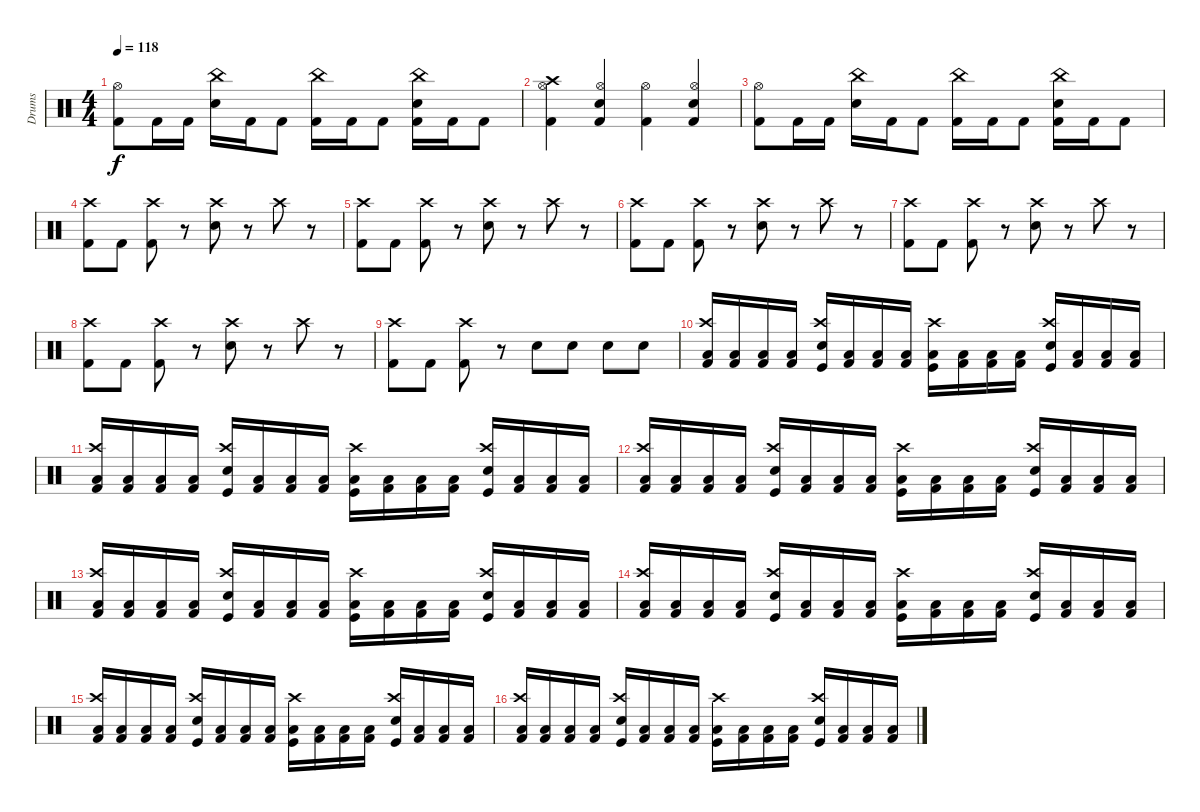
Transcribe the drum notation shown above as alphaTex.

\track ("Drums" "Drums") {instrument percussion}
\staff {score}
\articulation defaults
\ts (4 4)
\tempo 118
\clef neutral
\ks c
("Kick (hit) 2" "Hi-Hat (open)").8{dy f} "Kick (hit) 2".16 "Kick (hit) 2".16 ("Snare (hit) 2" "China (hit)").16 "Kick (hit) 2".16 "Kick (hit) 2".8 ("Kick (hit) 2" "China (hit)").16 "Kick (hit) 2".16 "Kick (hit) 2".8 ("Kick (hit) 2" "Snare (hit) 2" "China (hit)").16 "Kick (hit) 2".16 "Kick (hit) 2".8 |
("Kick (hit) 2" "Hi-Hat (open)" "Crash high (hit)").4 ("Kick (hit) 2" "Snare (hit) 2" "Hi-Hat (open)").4 ("Kick (hit) 2" "Hi-Hat (open)").4 ("Kick (hit) 2" "Snare (hit) 2" "Hi-Hat (open)").4 |
("Kick (hit) 2" "Hi-Hat (open)").8 "Kick (hit) 2".16 "Kick (hit) 2".16 ("Snare (hit) 2" "China (hit)").16 "Kick (hit) 2".16 "Kick (hit) 2".8 ("Kick (hit) 2" "China (hit)").16 "Kick (hit) 2".16 "Kick (hit) 2".8 ("Kick (hit) 2" "Snare (hit) 2" "China (hit)").16 "Kick (hit) 2".16 "Kick (hit) 2".8 |
("Kick (hit) 2" "Crash high (hit)").8 "Kick (hit) 2".8 ("Kick (hit) 2" "Crash high (hit)").8 r.8 ("Snare (hit) 2" "Crash high (hit)").8 r.8 "Crash high (hit)".8 r.8 |
("Kick (hit) 2" "Crash high (hit)").8 "Kick (hit) 2".8 ("Kick (hit) 2" "Crash high (hit)").8 r.8 ("Snare (hit) 2" "Crash high (hit)").8 r.8 "Crash high (hit)".8 r.8 |
("Kick (hit) 2" "Crash high (hit)").8 "Kick (hit) 2".8 ("Kick (hit) 2" "Crash high (hit)").8 r.8 ("Snare (hit) 2" "Crash high (hit)").8 r.8 "Crash high (hit)".8 r.8 |
("Kick (hit) 2" "Crash high (hit)").8 "Kick (hit) 2".8 ("Kick (hit) 2" "Crash high (hit)").8 r.8 ("Snare (hit) 2" "Crash high (hit)").8 r.8 "Crash high (hit)".8 r.8 |
("Kick (hit) 2" "Crash high (hit)").8 "Kick (hit) 2".8 ("Kick (hit) 2" "Crash high (hit)").8 r.8 ("Snare (hit) 2" "Crash high (hit)").8 r.8 "Crash high (hit)".8 r.8 |
("Kick (hit) 2" "Crash high (hit)").8 "Kick (hit) 2".8 ("Kick (hit) 2" "Crash high (hit)").8 r.8 "Snare (hit) 2".8 "Snare (hit) 2".8 "Snare (hit) 2".8 "Snare (hit) 2".8 |
("Kick (hit) 2" "Low Floor Tom (hit)" "Crash high (hit)").16 ("Kick (hit) 2" "Low Floor Tom (hit)").16 ("Kick (hit) 2" "Low Floor Tom (hit)").16 ("Kick (hit) 2" "Low Floor Tom (hit)").16 ("Kick (hit)" "Snare (hit) 2" "Crash high (hit)").16 ("Kick (hit) 2" "Low Floor Tom (hit)").16 ("Kick (hit) 2" "Low Floor Tom (hit)").16 ("Kick (hit) 2" "Low Floor Tom (hit)").16 ("Kick (hit)" "Low Floor Tom (hit)" "Crash high (hit)").16 ("Kick (hit) 2" "Low Floor Tom (hit)").16 ("Kick (hit) 2" "Low Floor Tom (hit)").16 ("Kick (hit) 2" "Low Floor Tom (hit)").16 ("Kick (hit)" "Snare (hit) 2" "Crash high (hit)").16 ("Kick (hit) 2" "Low Floor Tom (hit)").16 ("Kick (hit) 2" "Low Floor Tom (hit)").16 ("Kick (hit) 2" "Low Floor Tom (hit)").16 |
("Kick (hit) 2" "Low Floor Tom (hit)" "Crash high (hit)").16 ("Kick (hit) 2" "Low Floor Tom (hit)").16 ("Kick (hit) 2" "Low Floor Tom (hit)").16 ("Kick (hit) 2" "Low Floor Tom (hit)").16 ("Kick (hit)" "Snare (hit) 2" "Crash high (hit)").16 ("Kick (hit) 2" "Low Floor Tom (hit)").16 ("Kick (hit) 2" "Low Floor Tom (hit)").16 ("Kick (hit) 2" "Low Floor Tom (hit)").16 ("Kick (hit)" "Low Floor Tom (hit)" "Crash high (hit)").16 ("Kick (hit) 2" "Low Floor Tom (hit)").16 ("Kick (hit) 2" "Low Floor Tom (hit)").16 ("Kick (hit) 2" "Low Floor Tom (hit)").16 ("Kick (hit)" "Snare (hit) 2" "Crash high (hit)").16 ("Kick (hit) 2" "Low Floor Tom (hit)").16 ("Kick (hit) 2" "Low Floor Tom (hit)").16 ("Kick (hit) 2" "Low Floor Tom (hit)").16 |
("Kick (hit) 2" "Low Floor Tom (hit)" "Crash high (hit)").16 ("Kick (hit) 2" "Low Floor Tom (hit)").16 ("Kick (hit) 2" "Low Floor Tom (hit)").16 ("Kick (hit) 2" "Low Floor Tom (hit)").16 ("Kick (hit)" "Snare (hit) 2" "Crash high (hit)").16 ("Kick (hit) 2" "Low Floor Tom (hit)").16 ("Kick (hit) 2" "Low Floor Tom (hit)").16 ("Kick (hit) 2" "Low Floor Tom (hit)").16 ("Kick (hit)" "Low Floor Tom (hit)" "Crash high (hit)").16 ("Kick (hit) 2" "Low Floor Tom (hit)").16 ("Kick (hit) 2" "Low Floor Tom (hit)").16 ("Kick (hit) 2" "Low Floor Tom (hit)").16 ("Kick (hit)" "Snare (hit) 2" "Crash high (hit)").16 ("Kick (hit) 2" "Low Floor Tom (hit)").16 ("Kick (hit) 2" "Low Floor Tom (hit)").16 ("Kick (hit) 2" "Low Floor Tom (hit)").16 |
("Kick (hit) 2" "Low Floor Tom (hit)" "Crash high (hit)").16 ("Kick (hit) 2" "Low Floor Tom (hit)").16 ("Kick (hit) 2" "Low Floor Tom (hit)").16 ("Kick (hit) 2" "Low Floor Tom (hit)").16 ("Kick (hit)" "Snare (hit) 2" "Crash high (hit)").16 ("Kick (hit) 2" "Low Floor Tom (hit)").16 ("Kick (hit) 2" "Low Floor Tom (hit)").16 ("Kick (hit) 2" "Low Floor Tom (hit)").16 ("Kick (hit)" "Low Floor Tom (hit)" "Crash high (hit)").16 ("Kick (hit) 2" "Low Floor Tom (hit)").16 ("Kick (hit) 2" "Low Floor Tom (hit)").16 ("Kick (hit) 2" "Low Floor Tom (hit)").16 ("Kick (hit)" "Snare (hit) 2" "Crash high (hit)").16 ("Kick (hit) 2" "Low Floor Tom (hit)").16 ("Kick (hit) 2" "Low Floor Tom (hit)").16 ("Kick (hit) 2" "Low Floor Tom (hit)").16 |
("Kick (hit) 2" "Low Floor Tom (hit)" "Crash high (hit)").16 ("Kick (hit) 2" "Low Floor Tom (hit)").16 ("Kick (hit) 2" "Low Floor Tom (hit)").16 ("Kick (hit) 2" "Low Floor Tom (hit)").16 ("Kick (hit)" "Snare (hit) 2" "Crash high (hit)").16 ("Kick (hit) 2" "Low Floor Tom (hit)").16 ("Kick (hit) 2" "Low Floor Tom (hit)").16 ("Kick (hit) 2" "Low Floor Tom (hit)").16 ("Kick (hit)" "Low Floor Tom (hit)" "Crash high (hit)").16 ("Kick (hit) 2" "Low Floor Tom (hit)").16 ("Kick (hit) 2" "Low Floor Tom (hit)").16 ("Kick (hit) 2" "Low Floor Tom (hit)").16 ("Kick (hit)" "Snare (hit) 2" "Crash high (hit)").16 ("Kick (hit) 2" "Low Floor Tom (hit)").16 ("Kick (hit) 2" "Low Floor Tom (hit)").16 ("Kick (hit) 2" "Low Floor Tom (hit)").16 |
("Kick (hit) 2" "Low Floor Tom (hit)" "Crash high (hit)").16 ("Kick (hit) 2" "Low Floor Tom (hit)").16 ("Kick (hit) 2" "Low Floor Tom (hit)").16 ("Kick (hit) 2" "Low Floor Tom (hit)").16 ("Kick (hit)" "Snare (hit) 2" "Crash high (hit)").16 ("Kick (hit) 2" "Low Floor Tom (hit)").16 ("Kick (hit) 2" "Low Floor Tom (hit)").16 ("Kick (hit) 2" "Low Floor Tom (hit)").16 ("Kick (hit)" "Low Floor Tom (hit)" "Crash high (hit)").16 ("Kick (hit) 2" "Low Floor Tom (hit)").16 ("Kick (hit) 2" "Low Floor Tom (hit)").16 ("Kick (hit) 2" "Low Floor Tom (hit)").16 ("Kick (hit)" "Snare (hit) 2" "Crash high (hit)").16 ("Kick (hit) 2" "Low Floor Tom (hit)").16 ("Kick (hit) 2" "Low Floor Tom (hit)").16 ("Kick (hit) 2" "Low Floor Tom (hit)").16 |
("Kick (hit) 2" "Low Floor Tom (hit)" "Crash high (hit)").16 ("Kick (hit) 2" "Low Floor Tom (hit)").16 ("Kick (hit) 2" "Low Floor Tom (hit)").16 ("Kick (hit) 2" "Low Floor Tom (hit)").16 ("Kick (hit)" "Snare (hit) 2" "Crash high (hit)").16 ("Kick (hit) 2" "Low Floor Tom (hit)").16 ("Kick (hit) 2" "Low Floor Tom (hit)").16 ("Kick (hit) 2" "Low Floor Tom (hit)").16 ("Kick (hit)" "Low Floor Tom (hit)" "Crash high (hit)").16 ("Kick (hit) 2" "Low Floor Tom (hit)").16 ("Kick (hit) 2" "Low Floor Tom (hit)").16 ("Kick (hit) 2" "Low Floor Tom (hit)").16 ("Kick (hit)" "Snare (hit) 2" "Crash high (hit)").16 ("Kick (hit) 2" "Low Floor Tom (hit)").16 ("Kick (hit) 2" "Low Floor Tom (hit)").16 ("Kick (hit) 2" "Low Floor Tom (hit)").16
